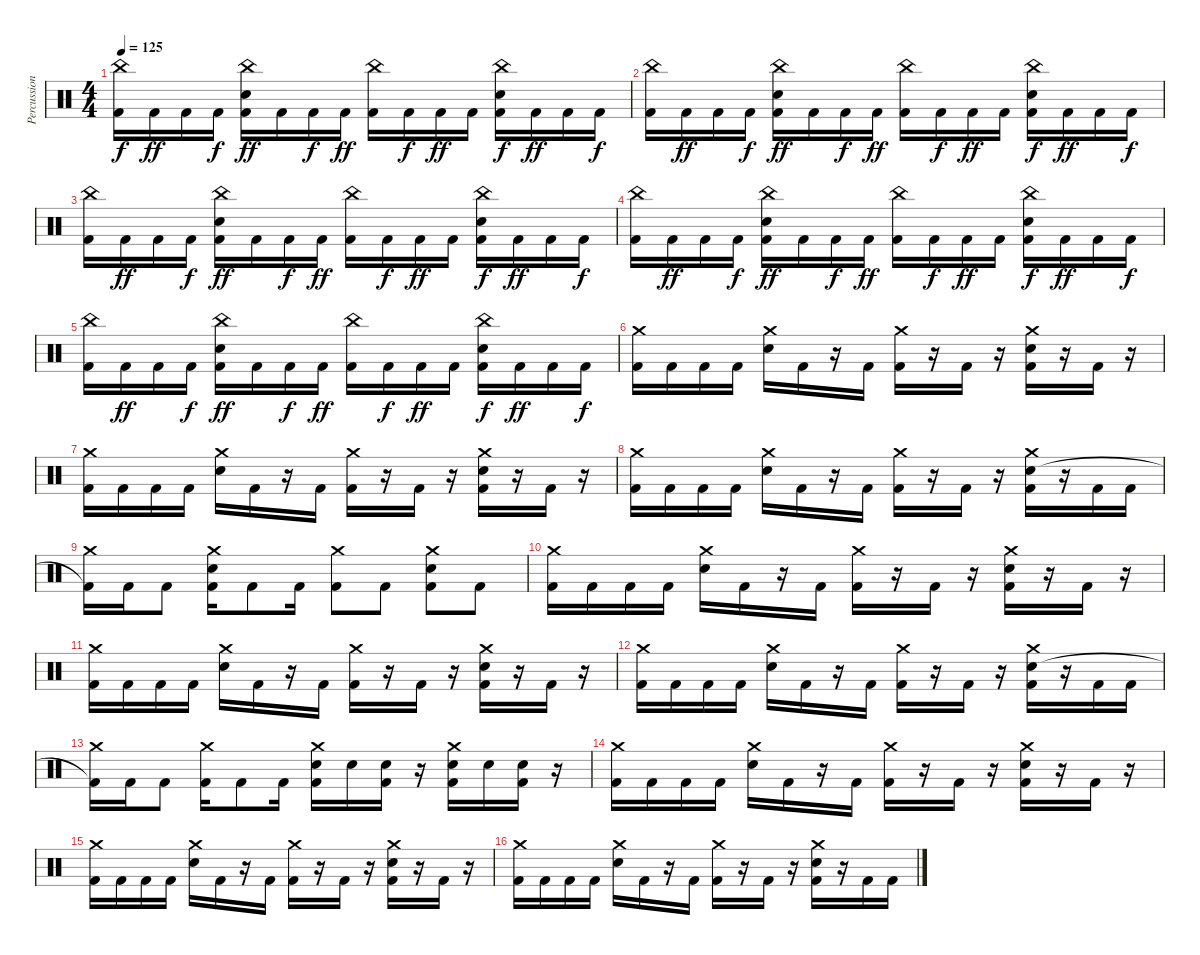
\track ("Percussion" "Percussion") {instrument percussion}
\staff {score}
\articulation defaults
\ts (4 4)
\tempo 125
\clef neutral
\ks c
("China (hit)" "Kick (hit) 2").16{dy f} "Kick (hit) 2".16{dy ff} "Kick (hit) 2".16 "Kick (hit) 2".16{dy f} ("China (hit)" "Electric Snare (hit)" "Kick (hit) 2").16{dy ff} "Kick (hit) 2".16 "Kick (hit) 2".16{dy f} "Kick (hit) 2".16{dy ff} ("China (hit)" "Kick (hit) 2").16 "Kick (hit) 2".16{dy f} "Kick (hit) 2".16{dy ff} "Kick (hit) 2".16 ("China (hit)" "Electric Snare (hit)" "Kick (hit) 2").16{dy f} "Kick (hit) 2".16{dy ff} "Kick (hit) 2".16 "Kick (hit) 2".16{dy f} |
("China (hit)" "Kick (hit) 2").16 "Kick (hit) 2".16{dy ff} "Kick (hit) 2".16 "Kick (hit) 2".16{dy f} ("China (hit)" "Electric Snare (hit)" "Kick (hit) 2").16{dy ff} "Kick (hit) 2".16 "Kick (hit) 2".16{dy f} "Kick (hit) 2".16{dy ff} ("China (hit)" "Kick (hit) 2").16 "Kick (hit) 2".16{dy f} "Kick (hit) 2".16{dy ff} "Kick (hit) 2".16 ("China (hit)" "Electric Snare (hit)" "Kick (hit) 2").16{dy f} "Kick (hit) 2".16{dy ff} "Kick (hit) 2".16 "Kick (hit) 2".16{dy f} |
("China (hit)" "Kick (hit) 2").16 "Kick (hit) 2".16{dy ff} "Kick (hit) 2".16 "Kick (hit) 2".16{dy f} ("China (hit)" "Electric Snare (hit)" "Kick (hit) 2").16{dy ff} "Kick (hit) 2".16 "Kick (hit) 2".16{dy f} "Kick (hit) 2".16{dy ff} ("China (hit)" "Kick (hit) 2").16 "Kick (hit) 2".16{dy f} "Kick (hit) 2".16{dy ff} "Kick (hit) 2".16 ("China (hit)" "Electric Snare (hit)" "Kick (hit) 2").16{dy f} "Kick (hit) 2".16{dy ff} "Kick (hit) 2".16 "Kick (hit) 2".16{dy f} |
("China (hit)" "Kick (hit) 2").16 "Kick (hit) 2".16{dy ff} "Kick (hit) 2".16 "Kick (hit) 2".16{dy f} ("China (hit)" "Electric Snare (hit)" "Kick (hit) 2").16{dy ff} "Kick (hit) 2".16 "Kick (hit) 2".16{dy f} "Kick (hit) 2".16{dy ff} ("China (hit)" "Kick (hit) 2").16 "Kick (hit) 2".16{dy f} "Kick (hit) 2".16{dy ff} "Kick (hit) 2".16 ("China (hit)" "Electric Snare (hit)" "Kick (hit) 2").16{dy f} "Kick (hit) 2".16{dy ff} "Kick (hit) 2".16 "Kick (hit) 2".16{dy f} |
("China (hit)" "Kick (hit) 2").16 "Kick (hit) 2".16{dy ff} "Kick (hit) 2".16 "Kick (hit) 2".16{dy f} ("China (hit)" "Electric Snare (hit)" "Kick (hit) 2").16{dy ff} "Kick (hit) 2".16 "Kick (hit) 2".16{dy f} "Kick (hit) 2".16{dy ff} ("China (hit)" "Kick (hit) 2").16 "Kick (hit) 2".16{dy f} "Kick (hit) 2".16{dy ff} "Kick (hit) 2".16 ("China (hit)" "Electric Snare (hit)" "Kick (hit) 2").16{dy f} "Kick (hit) 2".16{dy ff} "Kick (hit) 2".16 "Kick (hit) 2".16{dy f} |
("Crash medium (hit)" "Kick (hit) 2").16 "Kick (hit) 2".16 "Kick (hit) 2".16 "Kick (hit) 2".16 ("Crash medium (hit)" "Electric Snare (hit)").16 "Kick (hit) 2".16 r.16 "Kick (hit) 2".16 ("Crash medium (hit)" "Kick (hit) 2").16 r.16 "Kick (hit) 2".16 r.16 ("Crash medium (hit)" "Electric Snare (hit)" "Kick (hit) 2").16 r.16 "Kick (hit) 2".16 r.16 |
("Crash medium (hit)" "Kick (hit) 2").16 "Kick (hit) 2".16 "Kick (hit) 2".16 "Kick (hit) 2".16 ("Crash medium (hit)" "Electric Snare (hit)").16 "Kick (hit) 2".16 r.16 "Kick (hit) 2".16 ("Crash medium (hit)" "Kick (hit) 2").16 r.16 "Kick (hit) 2".16 r.16 ("Crash medium (hit)" "Electric Snare (hit)" "Kick (hit) 2").16 r.16 "Kick (hit) 2".16 r.16 |
("Crash medium (hit)" "Kick (hit) 2").16 "Kick (hit) 2".16 "Kick (hit) 2".16 "Kick (hit) 2".16 ("Crash medium (hit)" "Electric Snare (hit)").16 "Kick (hit) 2".16 r.16 "Kick (hit) 2".16 ("Crash medium (hit)" "Kick (hit) 2").16 r.16 "Kick (hit) 2".16 r.16 ("Crash medium (hit)" "Electric Snare (hit)" "Kick (hit) 2").16 r.16 "Kick (hit) 2".16 "Kick (hit) 2".16 |
("Crash medium (hit)" "Kick (hit) 2"{t}).16 "Kick (hit) 2".16 "Kick (hit) 2".8 ("Crash medium (hit)" "Electric Snare (hit)" "Kick (hit) 2").16 "Kick (hit) 2".8 "Kick (hit) 2".16 ("Crash medium (hit)" "Kick (hit) 2").8 "Kick (hit) 2".8 ("Crash medium (hit)" "Electric Snare (hit)" "Kick (hit) 2").8 "Kick (hit) 2".8 |
("Crash medium (hit)" "Kick (hit) 2").16 "Kick (hit) 2".16 "Kick (hit) 2".16 "Kick (hit) 2".16 ("Crash medium (hit)" "Electric Snare (hit)").16 "Kick (hit) 2".16 r.16 "Kick (hit) 2".16 ("Crash medium (hit)" "Kick (hit) 2").16 r.16 "Kick (hit) 2".16 r.16 ("Crash medium (hit)" "Electric Snare (hit)" "Kick (hit) 2").16 r.16 "Kick (hit) 2".16 r.16 |
("Crash medium (hit)" "Kick (hit) 2").16 "Kick (hit) 2".16 "Kick (hit) 2".16 "Kick (hit) 2".16 ("Crash medium (hit)" "Electric Snare (hit)").16 "Kick (hit) 2".16 r.16 "Kick (hit) 2".16 ("Crash medium (hit)" "Kick (hit) 2").16 r.16 "Kick (hit) 2".16 r.16 ("Crash medium (hit)" "Electric Snare (hit)" "Kick (hit) 2").16 r.16 "Kick (hit) 2".16 r.16 |
("Crash medium (hit)" "Kick (hit) 2").16 "Kick (hit) 2".16 "Kick (hit) 2".16 "Kick (hit) 2".16 ("Crash medium (hit)" "Electric Snare (hit)").16 "Kick (hit) 2".16 r.16 "Kick (hit) 2".16 ("Crash medium (hit)" "Kick (hit) 2").16 r.16 "Kick (hit) 2".16 r.16 ("Crash medium (hit)" "Electric Snare (hit)" "Kick (hit) 2").16 r.16 "Kick (hit) 2".16 "Kick (hit) 2".16 |
("Crash medium (hit)" "Kick (hit) 2"{t}).16 "Kick (hit) 2".16 "Kick (hit) 2".8 ("Crash medium (hit)" "Kick (hit) 2").16 "Kick (hit) 2".8 "Kick (hit) 2".16 ("Crash medium (hit)" "Electric Snare (hit)" "Kick (hit) 2").16 "Electric Snare (hit)".16 ("Electric Snare (hit)" "Kick (hit) 2").16 r.16 ("Crash medium (hit)" "Electric Snare (hit)" "Kick (hit) 2").16 "Electric Snare (hit)".16 ("Electric Snare (hit)" "Kick (hit) 2").16 r.16 |
("Crash medium (hit)" "Kick (hit) 2").16 "Kick (hit) 2".16 "Kick (hit) 2".16 "Kick (hit) 2".16 ("Crash medium (hit)" "Electric Snare (hit)").16 "Kick (hit) 2".16 r.16 "Kick (hit) 2".16 ("Crash medium (hit)" "Kick (hit) 2").16 r.16 "Kick (hit) 2".16 r.16 ("Crash medium (hit)" "Electric Snare (hit)" "Kick (hit) 2").16 r.16 "Kick (hit) 2".16 r.16 |
("Crash medium (hit)" "Kick (hit) 2").16 "Kick (hit) 2".16 "Kick (hit) 2".16 "Kick (hit) 2".16 ("Crash medium (hit)" "Electric Snare (hit)").16 "Kick (hit) 2".16 r.16 "Kick (hit) 2".16 ("Crash medium (hit)" "Kick (hit) 2").16 r.16 "Kick (hit) 2".16 r.16 ("Crash medium (hit)" "Electric Snare (hit)" "Kick (hit) 2").16 r.16 "Kick (hit) 2".16 r.16 |
("Crash medium (hit)" "Kick (hit) 2").16 "Kick (hit) 2".16 "Kick (hit) 2".16 "Kick (hit) 2".16 ("Crash medium (hit)" "Electric Snare (hit)").16 "Kick (hit) 2".16 r.16 "Kick (hit) 2".16 ("Crash medium (hit)" "Kick (hit) 2").16 r.16 "Kick (hit) 2".16 r.16 ("Crash medium (hit)" "Electric Snare (hit)" "Kick (hit) 2").16 r.16 "Kick (hit) 2".16 "Kick (hit) 2".16
